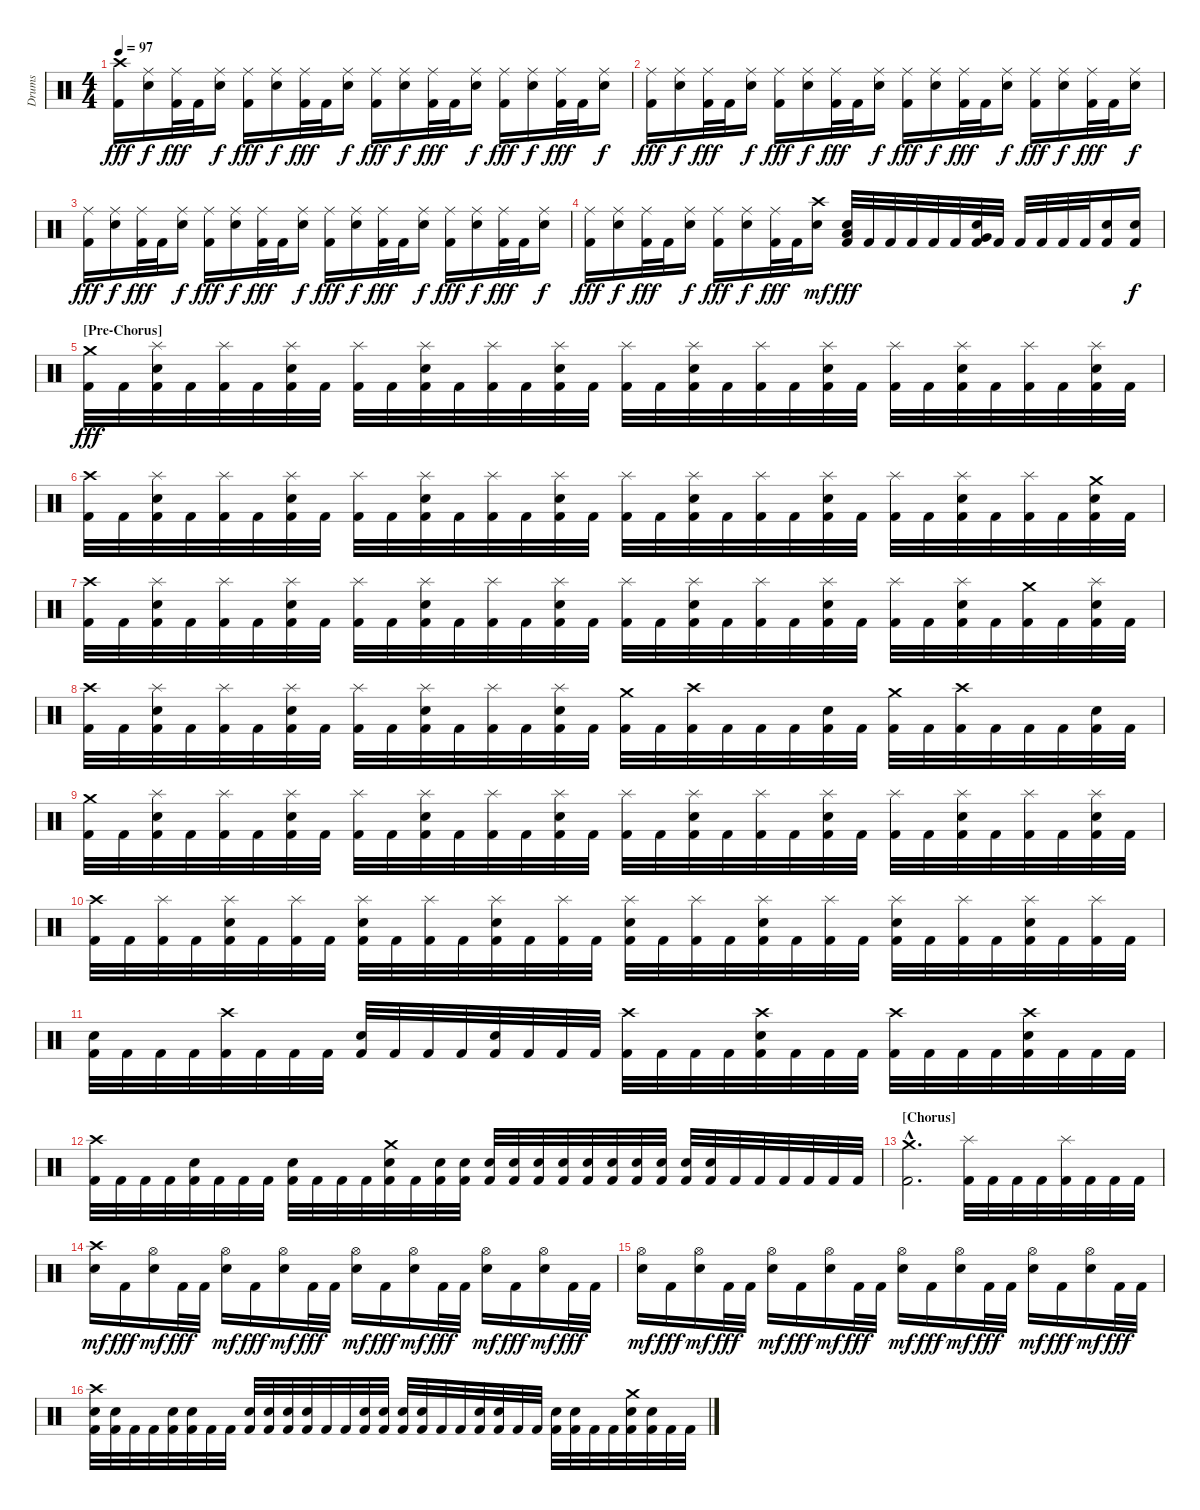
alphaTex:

\track ("Drums" "Drums") {instrument percussion}
\staff {score}
\articulation defaults
\ts (4 4)
\tempo 97
\clef neutral
\ks c
("Crash high (hit)" "Kick (hit) 2").16{dy fff} ("Ride (middle)" "Snare (hit) 2").16{dy f} ("Ride (middle)" "Kick (hit) 2").32{dy fff} "Kick (hit) 2".32 ("Ride (middle)" "Snare (hit) 2").16{dy f} ("Ride (middle)" "Kick (hit) 2").16{dy fff} ("Ride (middle)" "Snare (hit) 2").16{dy f} ("Ride (middle)" "Kick (hit) 2").32{dy fff} "Kick (hit) 2".32 ("Ride (middle)" "Snare (hit) 2").16{dy f} ("Ride (middle)" "Kick (hit) 2").16{dy fff} ("Ride (middle)" "Snare (hit) 2").16{dy f} ("Ride (middle)" "Kick (hit) 2").32{dy fff} "Kick (hit) 2".32 ("Ride (middle)" "Snare (hit) 2").16{dy f} ("Ride (middle)" "Kick (hit) 2").16{dy fff} ("Ride (middle)" "Snare (hit) 2").16{dy f} ("Ride (middle)" "Kick (hit) 2").32{dy fff} "Kick (hit) 2".32 ("Ride (middle)" "Snare (hit) 2").16{dy f} |
("Ride (middle)" "Kick (hit) 2").16{dy fff} ("Ride (middle)" "Snare (hit) 2").16{dy f} ("Ride (middle)" "Kick (hit) 2").32{dy fff} "Kick (hit) 2".32 ("Ride (middle)" "Snare (hit) 2").16{dy f} ("Ride (middle)" "Kick (hit) 2").16{dy fff} ("Ride (middle)" "Snare (hit) 2").16{dy f} ("Ride (middle)" "Kick (hit) 2").32{dy fff} "Kick (hit) 2".32 ("Ride (middle)" "Snare (hit) 2").16{dy f} ("Ride (middle)" "Kick (hit) 2").16{dy fff} ("Ride (middle)" "Snare (hit) 2").16{dy f} ("Ride (middle)" "Kick (hit) 2").32{dy fff} "Kick (hit) 2".32 ("Ride (middle)" "Snare (hit) 2").16{dy f} ("Ride (middle)" "Kick (hit) 2").16{dy fff} ("Ride (middle)" "Snare (hit) 2").16{dy f} ("Ride (middle)" "Kick (hit) 2").32{dy fff} "Kick (hit) 2".32 ("Ride (middle)" "Snare (hit) 2").16{dy f} |
("Ride (middle)" "Kick (hit) 2").16{dy fff} ("Ride (middle)" "Snare (hit) 2").16{dy f} ("Ride (middle)" "Kick (hit) 2").32{dy fff} "Kick (hit) 2".32 ("Ride (middle)" "Snare (hit) 2").16{dy f} ("Ride (middle)" "Kick (hit) 2").16{dy fff} ("Ride (middle)" "Snare (hit) 2").16{dy f} ("Ride (middle)" "Kick (hit) 2").32{dy fff} "Kick (hit) 2".32 ("Ride (middle)" "Snare (hit) 2").16{dy f} ("Ride (middle)" "Kick (hit) 2").16{dy fff} ("Ride (middle)" "Snare (hit) 2").16{dy f} ("Ride (middle)" "Kick (hit) 2").32{dy fff} "Kick (hit) 2".32 ("Ride (middle)" "Snare (hit) 2").16{dy f} ("Ride (middle)" "Kick (hit) 2").16{dy fff} ("Ride (middle)" "Snare (hit) 2").16{dy f} ("Ride (middle)" "Kick (hit) 2").32{dy fff} "Kick (hit) 2".32 ("Ride (middle)" "Snare (hit) 2").16{dy f} |
("Ride (middle)" "Kick (hit) 2").16{dy fff} ("Ride (middle)" "Snare (hit) 2").16{dy f} ("Ride (middle)" "Kick (hit) 2").32{dy fff} "Kick (hit) 2".32 ("Ride (middle)" "Snare (hit) 2").16{dy f} ("Ride (middle)" "Kick (hit) 2").16{dy fff} ("Ride (middle)" "Snare (hit) 2").16{dy f} ("Ride (middle)" "Kick (hit) 2").32{dy fff} "Kick (hit) 2".32 ("Crash high (hit)" "Snare (hit) 2").16{dy mf} ("Low Tom (hit)" "Snare (hit) 2" "Kick (hit) 2").32{dy fff} "Kick (hit) 2".32 "Kick (hit) 2".32 "Kick (hit) 2".32 "Kick (hit) 2".32 "Kick (hit) 2".32 ("Very Low Tom (hit)" "Snare (hit) 2" "Kick (hit) 2").32 "Kick (hit) 2".32 "Kick (hit) 2".32 "Kick (hit) 2".32 "Kick (hit) 2".32 "Kick (hit) 2".32 ("Snare (hit) 2" "Kick (hit) 2").16 ("Snare (hit) 2" "Kick (hit) 2").16{dy f} |
\section ("" "[Pre-Chorus]")
("Crash medium (hit)" "Kick (hit) 2").32{dy fff} "Kick (hit) 2".32 ("Splash (hit)" "Snare (hit) 2" "Kick (hit) 2").32 "Kick (hit) 2".32 ("Splash (hit)" "Kick (hit) 2").32 "Kick (hit) 2".32 ("Splash (hit)" "Snare (hit) 2" "Kick (hit) 2").32 "Kick (hit) 2".32 ("Splash (hit)" "Kick (hit) 2").32 "Kick (hit) 2".32 ("Splash (hit)" "Snare (hit) 2" "Kick (hit) 2").32 "Kick (hit) 2".32 ("Splash (hit)" "Kick (hit) 2").32 "Kick (hit) 2".32 ("Splash (hit)" "Snare (hit) 2" "Kick (hit) 2").32 "Kick (hit) 2".32 ("Splash (hit)" "Kick (hit) 2").32 "Kick (hit) 2".32 ("Splash (hit)" "Snare (hit) 2" "Kick (hit) 2").32 "Kick (hit) 2".32 ("Splash (hit)" "Kick (hit) 2").32 "Kick (hit) 2".32 ("Splash (hit)" "Snare (hit) 2" "Kick (hit) 2").32 "Kick (hit) 2".32 ("Splash (hit)" "Kick (hit) 2").32 "Kick (hit) 2".32 ("Splash (hit)" "Snare (hit) 2" "Kick (hit) 2").32 "Kick (hit) 2".32 ("Splash (hit)" "Kick (hit) 2").32 "Kick (hit) 2".32 ("Splash (hit)" "Snare (hit) 2" "Kick (hit) 2").32 "Kick (hit) 2".32 |
("Crash high (hit)" "Kick (hit) 2").32 "Kick (hit) 2".32 ("Splash (hit)" "Snare (hit) 2" "Kick (hit) 2").32 "Kick (hit) 2".32 ("Splash (hit)" "Kick (hit) 2").32 "Kick (hit) 2".32 ("Splash (hit)" "Snare (hit) 2" "Kick (hit) 2").32 "Kick (hit) 2".32 ("Splash (hit)" "Kick (hit) 2").32 "Kick (hit) 2".32 ("Splash (hit)" "Snare (hit) 2" "Kick (hit) 2").32 "Kick (hit) 2".32 ("Splash (hit)" "Kick (hit) 2").32 "Kick (hit) 2".32 ("Splash (hit)" "Snare (hit) 2" "Kick (hit) 2").32 "Kick (hit) 2".32 ("Splash (hit)" "Kick (hit) 2").32 "Kick (hit) 2".32 ("Splash (hit)" "Snare (hit) 2" "Kick (hit) 2").32 "Kick (hit) 2".32 ("Splash (hit)" "Kick (hit) 2").32 "Kick (hit) 2".32 ("Splash (hit)" "Snare (hit) 2" "Kick (hit) 2").32 "Kick (hit) 2".32 ("Splash (hit)" "Kick (hit) 2").32 "Kick (hit) 2".32 ("Splash (hit)" "Snare (hit) 2" "Kick (hit) 2").32 "Kick (hit) 2".32 ("Splash (hit)" "Kick (hit) 2").32 "Kick (hit) 2".32 ("Crash medium (hit)" "Snare (hit) 2" "Kick (hit) 2").32 "Kick (hit) 2".32 |
("Crash high (hit)" "Kick (hit) 2").32 "Kick (hit) 2".32 ("Splash (hit)" "Snare (hit) 2" "Kick (hit) 2").32 "Kick (hit) 2".32 ("Splash (hit)" "Kick (hit) 2").32 "Kick (hit) 2".32 ("Splash (hit)" "Snare (hit) 2" "Kick (hit) 2").32 "Kick (hit) 2".32 ("Splash (hit)" "Kick (hit) 2").32 "Kick (hit) 2".32 ("Splash (hit)" "Snare (hit) 2" "Kick (hit) 2").32 "Kick (hit) 2".32 ("Splash (hit)" "Kick (hit) 2").32 "Kick (hit) 2".32 ("Splash (hit)" "Snare (hit) 2" "Kick (hit) 2").32 "Kick (hit) 2".32 ("Splash (hit)" "Kick (hit) 2").32 "Kick (hit) 2".32 ("Splash (hit)" "Snare (hit) 2" "Kick (hit) 2").32 "Kick (hit) 2".32 ("Splash (hit)" "Kick (hit) 2").32 "Kick (hit) 2".32 ("Splash (hit)" "Snare (hit) 2" "Kick (hit) 2").32 "Kick (hit) 2".32 ("Splash (hit)" "Kick (hit) 2").32 "Kick (hit) 2".32 ("Splash (hit)" "Snare (hit) 2" "Kick (hit) 2").32 "Kick (hit) 2".32 ("Crash medium (hit)" "Kick (hit) 2").32 "Kick (hit) 2".32 ("Splash (hit)" "Snare (hit) 2" "Kick (hit) 2").32 "Kick (hit) 2".32 |
("Crash high (hit)" "Kick (hit) 2").32 "Kick (hit) 2".32 ("Splash (hit)" "Snare (hit) 2" "Kick (hit) 2").32 "Kick (hit) 2".32 ("Splash (hit)" "Kick (hit) 2").32 "Kick (hit) 2".32 ("Splash (hit)" "Snare (hit) 2" "Kick (hit) 2").32 "Kick (hit) 2".32 ("Splash (hit)" "Kick (hit) 2").32 "Kick (hit) 2".32 ("Splash (hit)" "Snare (hit) 2" "Kick (hit) 2").32 "Kick (hit) 2".32 ("Splash (hit)" "Kick (hit) 2").32 "Kick (hit) 2".32 ("Splash (hit)" "Snare (hit) 2" "Kick (hit) 2").32 "Kick (hit) 2".32 ("Crash medium (hit)" "Kick (hit) 2").32 "Kick (hit) 2".32 ("Crash high (hit)" "Kick (hit) 2").32 "Kick (hit) 2".32 "Kick (hit) 2".32 "Kick (hit) 2".32 ("Snare (hit) 2" "Kick (hit) 2").32 "Kick (hit) 2".32 ("Crash medium (hit)" "Kick (hit) 2").32 "Kick (hit) 2".32 ("Crash high (hit)" "Kick (hit) 2").32 "Kick (hit) 2".32 "Kick (hit) 2".32 "Kick (hit) 2".32 ("Snare (hit) 2" "Kick (hit) 2").32 "Kick (hit) 2".32 |
("Crash medium (hit)" "Kick (hit) 2").32 "Kick (hit) 2".32 ("Splash (hit)" "Snare (hit) 2" "Kick (hit) 2").32 "Kick (hit) 2".32 ("Splash (hit)" "Kick (hit) 2").32 "Kick (hit) 2".32 ("Splash (hit)" "Snare (hit) 2" "Kick (hit) 2").32 "Kick (hit) 2".32 ("Splash (hit)" "Kick (hit) 2").32 "Kick (hit) 2".32 ("Splash (hit)" "Snare (hit) 2" "Kick (hit) 2").32 "Kick (hit) 2".32 ("Splash (hit)" "Kick (hit) 2").32 "Kick (hit) 2".32 ("Splash (hit)" "Snare (hit) 2" "Kick (hit) 2").32 "Kick (hit) 2".32 ("Splash (hit)" "Kick (hit) 2").32 "Kick (hit) 2".32 ("Splash (hit)" "Snare (hit) 2" "Kick (hit) 2").32 "Kick (hit) 2".32 ("Splash (hit)" "Kick (hit) 2").32 "Kick (hit) 2".32 ("Splash (hit)" "Snare (hit) 2" "Kick (hit) 2").32 "Kick (hit) 2".32 ("Splash (hit)" "Kick (hit) 2").32 "Kick (hit) 2".32 ("Splash (hit)" "Snare (hit) 2" "Kick (hit) 2").32 "Kick (hit) 2".32 ("Splash (hit)" "Kick (hit) 2").32 "Kick (hit) 2".32 ("Splash (hit)" "Snare (hit) 2" "Kick (hit) 2").32 "Kick (hit) 2".32 |
("Crash high (hit)" "Kick (hit) 2").32 "Kick (hit) 2".32 ("Splash (hit)" "Kick (hit) 2").32 "Kick (hit) 2".32 ("Splash (hit)" "Snare (hit) 2" "Kick (hit) 2").32 "Kick (hit) 2".32 ("Splash (hit)" "Kick (hit) 2").32 "Kick (hit) 2".32 ("Splash (hit)" "Snare (hit) 2" "Kick (hit) 2").32 "Kick (hit) 2".32 ("Splash (hit)" "Kick (hit) 2").32 "Kick (hit) 2".32 ("Splash (hit)" "Snare (hit) 2" "Kick (hit) 2").32 "Kick (hit) 2".32 ("Splash (hit)" "Kick (hit) 2").32 "Kick (hit) 2".32 ("Splash (hit)" "Snare (hit) 2" "Kick (hit) 2").32 "Kick (hit) 2".32 ("Splash (hit)" "Kick (hit) 2").32 "Kick (hit) 2".32 ("Splash (hit)" "Snare (hit) 2" "Kick (hit) 2").32 "Kick (hit) 2".32 ("Splash (hit)" "Kick (hit) 2").32 "Kick (hit) 2".32 ("Splash (hit)" "Snare (hit) 2" "Kick (hit) 2").32 "Kick (hit) 2".32 ("Splash (hit)" "Kick (hit) 2").32 "Kick (hit) 2".32 ("Splash (hit)" "Snare (hit) 2" "Kick (hit) 2").32 "Kick (hit) 2".32 ("Splash (hit)" "Kick (hit) 2").32 "Kick (hit) 2".32 |
("Snare (hit) 2" "Kick (hit) 2").32 "Kick (hit) 2".32 "Kick (hit) 2".32 "Kick (hit) 2".32 ("Crash high (hit)" "Kick (hit) 2").32 "Kick (hit) 2".32 "Kick (hit) 2".32 "Kick (hit) 2".32 ("Snare (hit) 2" "Kick (hit) 2").32 "Kick (hit) 2".32 "Kick (hit) 2".32 "Kick (hit) 2".32 ("Snare (hit) 2" "Kick (hit) 2").32 "Kick (hit) 2".32 "Kick (hit) 2".32 "Kick (hit) 2".32 ("Crash high (hit)" "Kick (hit) 2").32 "Kick (hit) 2".32 "Kick (hit) 2".32 "Kick (hit) 2".32 ("Crash high (hit)" "Snare (hit) 2" "Kick (hit) 2").32 "Kick (hit) 2".32 "Kick (hit) 2".32 "Kick (hit) 2".32 ("Crash high (hit)" "Kick (hit) 2").32 "Kick (hit) 2".32 "Kick (hit) 2".32 "Kick (hit) 2".32 ("Crash high (hit)" "Snare (hit) 2" "Kick (hit) 2").32 "Kick (hit) 2".32 "Kick (hit) 2".32 "Kick (hit) 2".32 |
("Crash high (hit)" "Kick (hit) 2").32 "Kick (hit) 2".32 "Kick (hit) 2".32 "Kick (hit) 2".32 ("Snare (hit) 2" "Kick (hit) 2").32 "Kick (hit) 2".32 "Kick (hit) 2".32 "Kick (hit) 2".32 ("Snare (hit) 2" "Kick (hit) 2").32 "Kick (hit) 2".32 "Kick (hit) 2".32 "Kick (hit) 2".32 ("Crash medium (hit)" "Snare (hit) 2" "Kick (hit) 2").32 "Kick (hit) 2".32 ("Snare (hit) 2" "Kick (hit) 2").32 ("Snare (hit) 2" "Kick (hit) 2").32 ("Snare (hit) 2" "Kick (hit) 2").32 ("Snare (hit) 2" "Kick (hit) 2").32 ("Snare (hit) 2" "Kick (hit) 2").32 ("Snare (hit) 2" "Kick (hit) 2").32 ("Snare (hit) 2" "Kick (hit) 2").32 ("Snare (hit) 2" "Kick (hit) 2").32 ("Snare (hit) 2" "Kick (hit) 2").32 ("Snare (hit) 2" "Kick (hit) 2").32 ("Snare (hit) 2" "Kick (hit) 2").32 ("Snare (hit) 2" "Kick (hit) 2").32 "Kick (hit) 2".32 "Kick (hit) 2".32 "Kick (hit) 2".32 "Kick (hit) 2".32 "Kick (hit) 2".32 "Kick (hit) 2".32 |
\section ("" "[Chorus]")
("Crash medium (hit)"{hac} "Kick (hit) 2"{hac}).2{d} ("Splash (hit)" "Kick (hit) 2").32 "Kick (hit) 2".32 "Kick (hit) 2".32 "Kick (hit) 2".32 ("Splash (hit)" "Kick (hit) 2").32 "Kick (hit) 2".32 "Kick (hit) 2".32 "Kick (hit) 2".32 |
("Crash high (hit)" "Snare (hit) 2").16{dy mf} "Kick (hit) 2".16{dy fff} ("Hi-Hat (open)" "Snare (hit) 2").16{dy mf} "Kick (hit) 2".32{dy fff} "Kick (hit) 2".32 ("Hi-Hat (open)" "Snare (hit) 2").16{dy mf} "Kick (hit) 2".16{dy fff} ("Hi-Hat (open)" "Snare (hit) 2").16{dy mf} "Kick (hit) 2".32{dy fff} "Kick (hit) 2".32 ("Hi-Hat (open)" "Snare (hit) 2").16{dy mf} "Kick (hit) 2".16{dy fff} ("Hi-Hat (open)" "Snare (hit) 2").16{dy mf} "Kick (hit) 2".32{dy fff} "Kick (hit) 2".32 ("Hi-Hat (open)" "Snare (hit) 2").16{dy mf} "Kick (hit) 2".16{dy fff} ("Hi-Hat (open)" "Snare (hit) 2").16{dy mf} "Kick (hit) 2".32{dy fff} "Kick (hit) 2".32 |
("Hi-Hat (open)" "Snare (hit) 2").16{dy mf} "Kick (hit) 2".16{dy fff} ("Hi-Hat (open)" "Snare (hit) 2").16{dy mf} "Kick (hit) 2".32{dy fff} "Kick (hit) 2".32 ("Hi-Hat (open)" "Snare (hit) 2").16{dy mf} "Kick (hit) 2".16{dy fff} ("Hi-Hat (open)" "Snare (hit) 2").16{dy mf} "Kick (hit) 2".32{dy fff} "Kick (hit) 2".32 ("Hi-Hat (open)" "Snare (hit) 2").16{dy mf} "Kick (hit) 2".16{dy fff} ("Hi-Hat (open)" "Snare (hit) 2").16{dy mf} "Kick (hit) 2".32{dy fff} "Kick (hit) 2".32 ("Hi-Hat (open)" "Snare (hit) 2").16{dy mf} "Kick (hit) 2".16{dy fff} ("Hi-Hat (open)" "Snare (hit) 2").16{dy mf} "Kick (hit) 2".32{dy fff} "Kick (hit) 2".32 |
("Crash high (hit)" "Snare (hit) 2" "Kick (hit) 2").32 ("Snare (hit) 2" "Kick (hit) 2").32 "Kick (hit) 2".32 "Kick (hit) 2".32 ("Snare (hit) 2" "Kick (hit) 2").32 ("Snare (hit) 2" "Kick (hit) 2").32 "Kick (hit) 2".32 "Kick (hit) 2".32 ("Snare (hit) 2" "Kick (hit) 2").32 ("Snare (hit) 2" "Kick (hit) 2").32 ("Snare (hit) 2" "Kick (hit) 2").32 ("Snare (hit) 2" "Kick (hit) 2").32 "Kick (hit) 2".32 "Kick (hit) 2".32 ("Snare (hit) 2" "Kick (hit) 2").32 ("Snare (hit) 2" "Kick (hit) 2").32 ("Snare (hit) 2" "Kick (hit) 2").32 ("Snare (hit) 2" "Kick (hit) 2").32 "Kick (hit) 2".32 "Kick (hit) 2".32 ("Snare (hit) 2" "Kick (hit) 2").32 ("Snare (hit) 2" "Kick (hit) 2").32 "Kick (hit) 2".32 "Kick (hit) 2".32 ("Snare (hit) 2" "Kick (hit) 2").32 ("Snare (hit) 2" "Kick (hit) 2").32 "Kick (hit) 2".32 "Kick (hit) 2".32 ("Crash medium (hit)" "Snare (hit) 2" "Kick (hit) 2").32 ("Snare (hit) 2" "Kick (hit) 2").32 "Kick (hit) 2".32 "Kick (hit) 2".32
